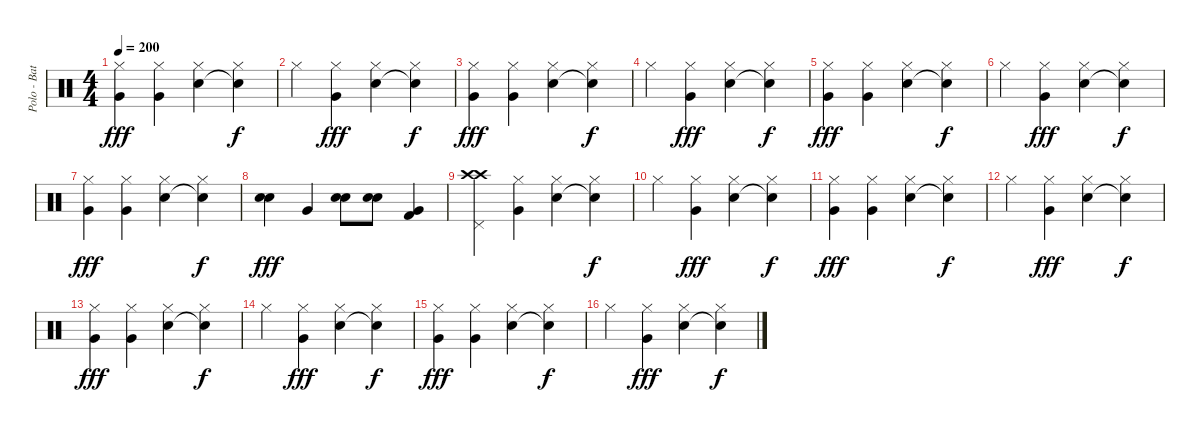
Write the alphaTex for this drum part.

\track ("Polo - Batería" "Polo - Bat") {instrument percussion}
\staff {score}
\articulation defaults
\ts (4 4)
\tempo 200
\clef neutral
\ks c
("Hi-Hat (closed)" "Very Low Tom (hit)").4{dy fff} ("Hi-Hat (closed)" "Very Low Tom (hit)").4 ("Hi-Hat (closed)" "Electric Snare (hit)").4 ("Hi-Hat (closed)" "Snare (hit)"{t}).4{dy f} |
"Hi-Hat (closed)".4 ("Hi-Hat (closed)" "Very Low Tom (hit)").4{dy fff} ("Hi-Hat (closed)" "Electric Snare (hit)").4 ("Hi-Hat (closed)" "Snare (hit)"{t}).4{dy f} |
("Hi-Hat (closed)" "Very Low Tom (hit)").4{dy fff} ("Hi-Hat (closed)" "Very Low Tom (hit)").4 ("Hi-Hat (closed)" "Electric Snare (hit)").4 ("Hi-Hat (closed)" "Snare (hit)"{t}).4{dy f} |
"Hi-Hat (closed)".4 ("Hi-Hat (closed)" "Very Low Tom (hit)").4{dy fff} ("Hi-Hat (closed)" "Electric Snare (hit)").4 ("Hi-Hat (closed)" "Snare (hit)"{t}).4{dy f} |
("Hi-Hat (closed)" "Very Low Tom (hit)").4{dy fff} ("Hi-Hat (closed)" "Very Low Tom (hit)").4 ("Hi-Hat (closed)" "Electric Snare (hit)").4 ("Hi-Hat (closed)" "Snare (hit)"{t}).4{dy f} |
"Hi-Hat (closed)".4 ("Hi-Hat (closed)" "Very Low Tom (hit)").4{dy fff} ("Hi-Hat (closed)" "Electric Snare (hit)").4 ("Hi-Hat (closed)" "Snare (hit)"{t}).4{dy f} |
("Hi-Hat (closed)" "Very Low Tom (hit)").4{dy fff} ("Hi-Hat (closed)" "Very Low Tom (hit)").4 ("Hi-Hat (closed)" "Electric Snare (hit)").4 ("Hi-Hat (closed)" "Snare (hit)"{t}).4{dy f} |
("Electric Snare (hit)" "Snare (hit) 2").4{dy fff} "Very Low Tom (hit)".4 ("Hand Clap (hit)" "Electric Snare (hit)").8 ("Hand Clap (hit)" "Electric Snare (hit)").8 ("Kick (hit) 2" "Very Low Tom (hit)").4 |
("Pedal Hi-Hat (hit)" "Crash high (hit)" "Crash high (hit)").4 ("Hi-Hat (closed)" "Very Low Tom (hit)").4 ("Hi-Hat (closed)" "Electric Snare (hit)").4 ("Hi-Hat (closed)" "Snare (hit)"{t}).4{dy f} |
"Hi-Hat (closed)".4 ("Hi-Hat (closed)" "Very Low Tom (hit)").4{dy fff} ("Hi-Hat (closed)" "Electric Snare (hit)").4 ("Hi-Hat (closed)" "Snare (hit)"{t}).4{dy f} |
("Hi-Hat (closed)" "Very Low Tom (hit)").4{dy fff} ("Hi-Hat (closed)" "Very Low Tom (hit)").4 ("Hi-Hat (closed)" "Electric Snare (hit)").4 ("Hi-Hat (closed)" "Snare (hit)"{t}).4{dy f} |
"Hi-Hat (closed)".4 ("Hi-Hat (closed)" "Very Low Tom (hit)").4{dy fff} ("Hi-Hat (closed)" "Electric Snare (hit)").4 ("Hi-Hat (closed)" "Snare (hit)"{t}).4{dy f} |
("Hi-Hat (closed)" "Very Low Tom (hit)").4{dy fff} ("Hi-Hat (closed)" "Very Low Tom (hit)").4 ("Hi-Hat (closed)" "Electric Snare (hit)").4 ("Hi-Hat (closed)" "Snare (hit)"{t}).4{dy f} |
"Hi-Hat (closed)".4 ("Hi-Hat (closed)" "Very Low Tom (hit)").4{dy fff} ("Hi-Hat (closed)" "Electric Snare (hit)").4 ("Hi-Hat (closed)" "Snare (hit)"{t}).4{dy f} |
("Hi-Hat (closed)" "Very Low Tom (hit)").4{dy fff} ("Hi-Hat (closed)" "Very Low Tom (hit)").4 ("Hi-Hat (closed)" "Electric Snare (hit)").4 ("Hi-Hat (closed)" "Snare (hit)"{t}).4{dy f} |
"Hi-Hat (closed)".4 ("Hi-Hat (closed)" "Very Low Tom (hit)").4{dy fff} ("Hi-Hat (closed)" "Electric Snare (hit)").4 ("Hi-Hat (closed)" "Snare (hit)"{t}).4{dy f}
